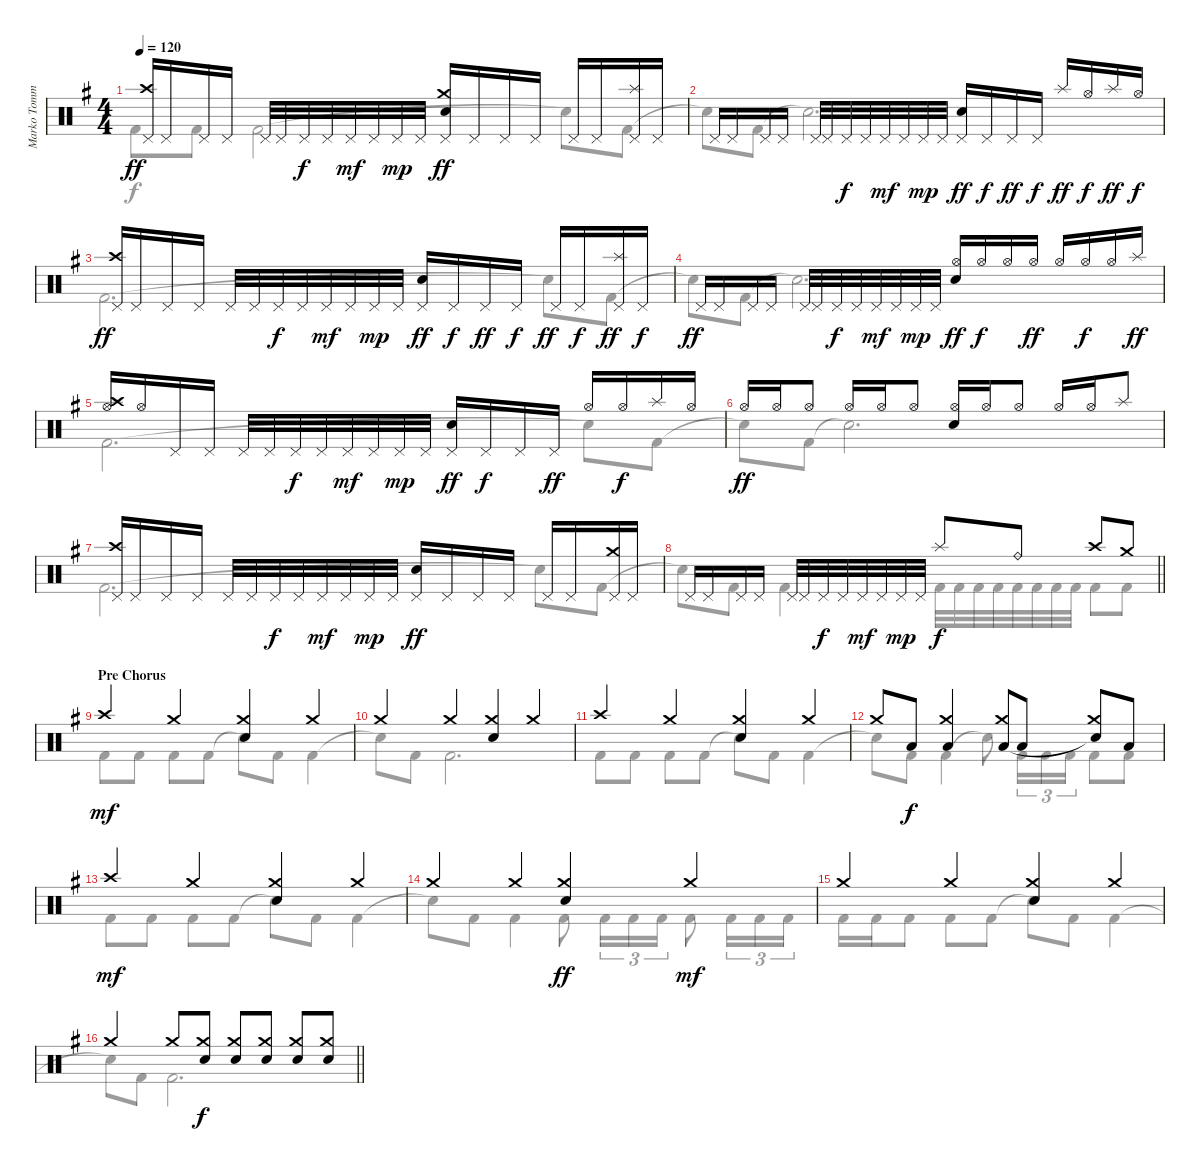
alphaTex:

\track ("Marko Tommila (drums)" "Marko Tomm") {instrument percussion}
\staff {score}
\articulation defaults
\voice
\ts (4 4)
\tempo 120
\clef neutral
\ks eminor
("Crash high (hit)" "Pedal Hi-Hat (hit)").16{dy ff} "Pedal Hi-Hat (hit)".16 "Pedal Hi-Hat (hit)".16 "Pedal Hi-Hat (hit)".16 "Pedal Hi-Hat (hit)".32 "Pedal Hi-Hat (hit)".32 "Pedal Hi-Hat (hit)".32{dy f} "Pedal Hi-Hat (hit)".32 "Pedal Hi-Hat (hit)".32{dy mf} "Pedal Hi-Hat (hit)".32 "Pedal Hi-Hat (hit)".32{dy mp} "Pedal Hi-Hat (hit)".32 ("Crash medium (hit)" "Pedal Hi-Hat (hit)" "Electric Snare (hit)").16{dy ff} "Pedal Hi-Hat (hit)".16 "Pedal Hi-Hat (hit)".16 "Pedal Hi-Hat (hit)".16 "Pedal Hi-Hat (hit)".16 "Pedal Hi-Hat (hit)".16 ("Pedal Hi-Hat (hit)" "Splash (hit)").16 "Pedal Hi-Hat (hit)".16 |
"Pedal Hi-Hat (hit)".16 "Pedal Hi-Hat (hit)".16 "Pedal Hi-Hat (hit)".16 "Pedal Hi-Hat (hit)".16 "Pedal Hi-Hat (hit)".32 "Pedal Hi-Hat (hit)".32 "Pedal Hi-Hat (hit)".32{dy f} "Pedal Hi-Hat (hit)".32 "Pedal Hi-Hat (hit)".32{dy mf} "Pedal Hi-Hat (hit)".32 "Pedal Hi-Hat (hit)".32{dy mp} "Pedal Hi-Hat (hit)".32 ("Pedal Hi-Hat (hit)" "Electric Snare (hit)").16{dy ff} "Pedal Hi-Hat (hit)".16{dy f} "Pedal Hi-Hat (hit)".16{dy ff} "Pedal Hi-Hat (hit)".16{dy f} "Splash (hit)".16{dy ff} "Hi-Hat (open)".16{dy f} "Splash (hit)".16{dy ff} "Hi-Hat (open)".16{dy f} |
("Pedal Hi-Hat (hit)" "Crash high (hit)").16{dy ff} "Pedal Hi-Hat (hit)".16 "Pedal Hi-Hat (hit)".16 "Pedal Hi-Hat (hit)".16 "Pedal Hi-Hat (hit)".32 "Pedal Hi-Hat (hit)".32 "Pedal Hi-Hat (hit)".32{dy f} "Pedal Hi-Hat (hit)".32 "Pedal Hi-Hat (hit)".32{dy mf} "Pedal Hi-Hat (hit)".32 "Pedal Hi-Hat (hit)".32{dy mp} "Pedal Hi-Hat (hit)".32 ("Pedal Hi-Hat (hit)" "Electric Snare (hit)").16{dy ff} "Pedal Hi-Hat (hit)".16{dy f} "Pedal Hi-Hat (hit)".16{dy ff} "Pedal Hi-Hat (hit)".16{dy f} "Pedal Hi-Hat (hit)".16{dy ff} "Pedal Hi-Hat (hit)".16{dy f} ("Pedal Hi-Hat (hit)" "Splash (hit)").16{dy ff} "Pedal Hi-Hat (hit)".16{dy f} |
"Pedal Hi-Hat (hit)".16{dy ff} "Pedal Hi-Hat (hit)".16 "Pedal Hi-Hat (hit)".16 "Pedal Hi-Hat (hit)".16 "Pedal Hi-Hat (hit)".32 "Pedal Hi-Hat (hit)".32 "Pedal Hi-Hat (hit)".32{dy f} "Pedal Hi-Hat (hit)".32 "Pedal Hi-Hat (hit)".32{dy mf} "Pedal Hi-Hat (hit)".32 "Pedal Hi-Hat (hit)".32{dy mp} "Pedal Hi-Hat (hit)".32 ("Hi-Hat (open)" "Electric Snare (hit)").16{dy ff} "Hi-Hat (open)".16{dy f} "Hi-Hat (open)".16 "Hi-Hat (open)".16{dy ff} "Hi-Hat (open)".16 "Hi-Hat (open)".16{dy f} "Hi-Hat (open)".16 "Splash (hit)".16{dy ff} |
("Crash high (hit)" "Hi-Hat (open)").16 "Hi-Hat (open)".16 "Pedal Hi-Hat (hit)".16 "Pedal Hi-Hat (hit)".16 "Pedal Hi-Hat (hit)".32 "Pedal Hi-Hat (hit)".32 "Pedal Hi-Hat (hit)".32{dy f} "Pedal Hi-Hat (hit)".32 "Pedal Hi-Hat (hit)".32{dy mf} "Pedal Hi-Hat (hit)".32 "Pedal Hi-Hat (hit)".32{dy mp} "Pedal Hi-Hat (hit)".32 ("Pedal Hi-Hat (hit)" "Electric Snare (hit)").16{dy ff} "Pedal Hi-Hat (hit)".16{dy f} "Pedal Hi-Hat (hit)".16 "Pedal Hi-Hat (hit)".16{dy ff} "Hi-Hat (open)".16 "Hi-Hat (open)".16{dy f} "Splash (hit)".16 "Hi-Hat (open)".16 |
"Hi-Hat (open)".16{dy ff} "Hi-Hat (open)".16 "Hi-Hat (open)".8 "Hi-Hat (open)".16 "Hi-Hat (open)".16 "Hi-Hat (open)".8 ("Hi-Hat (open)" "Electric Snare (hit)").16 "Hi-Hat (open)".16 "Hi-Hat (open)".8 "Hi-Hat (open)".16 "Hi-Hat (open)".16 "Splash (hit)".8 |
("Crash high (hit)" "Pedal Hi-Hat (hit)").16 "Pedal Hi-Hat (hit)".16 "Pedal Hi-Hat (hit)".16 "Pedal Hi-Hat (hit)".16 "Pedal Hi-Hat (hit)".32 "Pedal Hi-Hat (hit)".32 "Pedal Hi-Hat (hit)".32{dy f} "Pedal Hi-Hat (hit)".32 "Pedal Hi-Hat (hit)".32{dy mf} "Pedal Hi-Hat (hit)".32 "Pedal Hi-Hat (hit)".32{dy mp} "Pedal Hi-Hat (hit)".32 ("Pedal Hi-Hat (hit)" "Electric Snare (hit)").16{dy ff} "Pedal Hi-Hat (hit)".16 "Pedal Hi-Hat (hit)".16 "Pedal Hi-Hat (hit)".16 "Pedal Hi-Hat (hit)".16 "Pedal Hi-Hat (hit)".16 ("Pedal Hi-Hat (hit)" "Crash medium (hit)").16 "Pedal Hi-Hat (hit)".16 |
\barLineRight lightlight "Pedal Hi-Hat (hit)".16 "Pedal Hi-Hat (hit)".16 "Pedal Hi-Hat (hit)".16 "Pedal Hi-Hat (hit)".16 "Pedal Hi-Hat (hit)".32 "Pedal Hi-Hat (hit)".32 "Pedal Hi-Hat (hit)".32{dy f} "Pedal Hi-Hat (hit)".32 "Pedal Hi-Hat (hit)".32{dy mf} "Pedal Hi-Hat (hit)".32 "Pedal Hi-Hat (hit)".32{dy mp} "Pedal Hi-Hat (hit)".32 "Splash (hit)".8{dy f} "Ride (bell)".8 "Crash high (hit)".8 "Crash medium (hit)".8
|
\section ("" "Pre Chorus")
"Crash high (hit)".4{dy mf} "Crash medium (hit)".4 ("Crash medium (hit)" "Electric Snare (hit)").4 "Crash medium (hit)".4 |
"Crash medium (hit)".4 "Crash medium (hit)".4 ("Crash medium (hit)" "Electric Snare (hit)").4 "Crash medium (hit)".4 |
"Crash high (hit)".4 "Crash medium (hit)".4 ("Crash medium (hit)" "Electric Snare (hit)").4 "Crash medium (hit)".4 |
"Crash medium (hit)".8 "Low Tom (hit)".8{dy f} ("Crash medium (hit)" "Low Tom (hit)").4 ("Crash medium (hit)" "Low Tom (hit)").8 "Low Tom (hit)".8 ("Crash medium (hit)" "Snare (hit)"{t}).8 "Low Tom (hit)".8 |
"Crash high (hit)".4{dy mf} "Crash medium (hit)".4 ("Crash medium (hit)" "Electric Snare (hit)").4 "Crash medium (hit)".4 |
"Crash medium (hit)".4 "Crash medium (hit)".4 ("Crash medium (hit)" "Electric Snare (hit)").4{dy ff} "Crash medium (hit)".4{dy mf} |
"Crash medium (hit)".4 "Crash medium (hit)".4 ("Crash medium (hit)" "Electric Snare (hit)").4 "Crash medium (hit)".4 |
\barLineRight lightlight "Crash medium (hit)".4 "Crash medium (hit)".8
("Electric Snare (hit)" "Crash medium (hit)").8{dy f} ("Electric Snare (hit)" "Crash medium (hit)").8 ("Electric Snare (hit)" "Crash medium (hit)").8 ("Electric Snare (hit)" "Crash medium (hit)").8 ("Electric Snare (hit)" "Crash medium (hit)").8
\voice
\clef neutral
\ottava regular
\simile none
\ks eminor "Kick (hit) 2".8{dy f} "Kick (hit) 2".8 "Kick (hit) 2".2 "Snare (hit)"{t}.8 "Kick (hit) 2".8
|
"Snare (hit)"{t}.8 "Kick (hit) 2".8 "Snare (hit)"{t}.2{d} |
"Kick (hit) 2".2{d} "Snare (hit)"{t}.8 "Kick (hit) 2".8 |
"Snare (hit)"{t}.8 "Kick (hit) 2".8 "Snare (hit)"{t}.2{d} |
"Kick (hit) 2".2{d} "Snare (hit)"{t}.8 "Kick (hit) 2".8 |
"Snare (hit)"{t}.8 "Kick (hit) 2".8 "Snare (hit)"{t}.2{d} |
"Kick (hit) 2".2{d} "Snare (hit)"{t}.8 "Kick (hit) 2".8 |
\barLineRight lightlight "Snare (hit)"{t}.8 "Kick (hit) 2".8 "Kick (hit) 2".4 "Kick (hit) 2".32 "Kick (hit) 2".32 "Kick (hit) 2".32 "Kick (hit) 2".32 "Kick (hit) 2".32 "Kick (hit) 2".32 "Kick (hit) 2".32 "Kick (hit) 2".32 "Kick (hit) 2".8 "Kick (hit) 2".8
|
"Kick (hit) 2".8 "Kick (hit) 2".8 "Kick (hit) 2".8 "Kick (hit) 2".8 "Snare (hit)"{t}.8 "Kick (hit) 2".8 "Kick (hit) 2".4 |
"Snare (hit)"{t}.8 "Kick (hit) 2".8 "Kick (hit) 2".2{d} |
"Kick (hit) 2".8 "Kick (hit) 2".8 "Kick (hit) 2".8 "Kick (hit) 2".8 "Snare (hit)"{t}.8 "Kick (hit) 2".8 "Kick (hit) 2".4 |
"Snare (hit)"{t}.8 "Kick (hit) 2".8 "Kick (hit) 2".4 "Snare (hit)"{t}.8 "Kick (hit) 2".16{tu (3 2)} "Kick (hit) 2".16{tu (3 2)} "Kick (hit) 2".16{tu (3 2)} "Kick (hit) 2".8 "Kick (hit) 2".8 |
"Kick (hit) 2".8 "Kick (hit) 2".8 "Kick (hit) 2".8 "Kick (hit) 2".8 "Snare (hit)"{t}.8 "Kick (hit) 2".8 "Kick (hit) 2".4 |
"Snare (hit)"{t}.8 "Kick (hit) 2".8 "Kick (hit) 2".4 "Kick (hit) 2".8 "Kick (hit) 2".16{tu (3 2)} "Kick (hit) 2".16{tu (3 2)} "Kick (hit) 2".16{tu (3 2)} "Kick (hit) 2".8 "Kick (hit) 2".16{tu (3 2)} "Kick (hit) 2".16{tu (3 2)} "Kick (hit) 2".16{tu (3 2)} |
"Kick (hit) 2".16 "Kick (hit) 2".16 "Kick (hit) 2".8 "Kick (hit) 2".8 "Kick (hit) 2".8 "Snare (hit)"{t}.8 "Kick (hit) 2".8 "Kick (hit) 2".4 |
\barLineRight lightlight "Snare (hit)"{t}.8 "Kick (hit) 2".8 "Kick (hit) 2".2{d}
